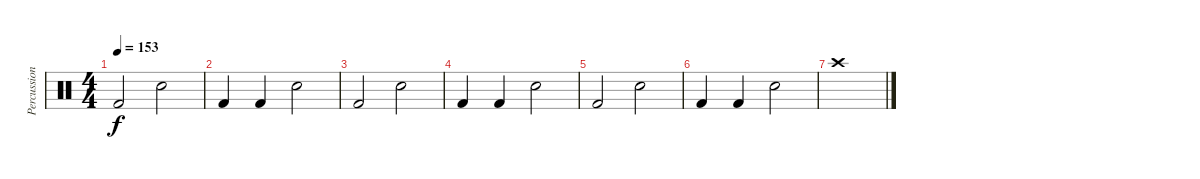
\track ("Percussion" "Percussion") {instrument percussion}
\staff {score}
\articulation defaults
\ts (4 4)
\tempo 153
\clef neutral
\ks c "Kick (hit) 2".2{dy f} "Electric Snare (hit)".2
|
"Kick (hit) 2".4 "Kick (hit) 2".4 "Electric Snare (hit)".2 |
"Kick (hit) 2".2 "Electric Snare (hit)".2 |
"Kick (hit) 2".4 "Kick (hit) 2".4 "Electric Snare (hit)".2 |
"Kick (hit) 2".2 "Electric Snare (hit)".2 |
"Kick (hit) 2".4 "Kick (hit) 2".4 "Electric Snare (hit)".2 |
"Crash high (hit)".1
